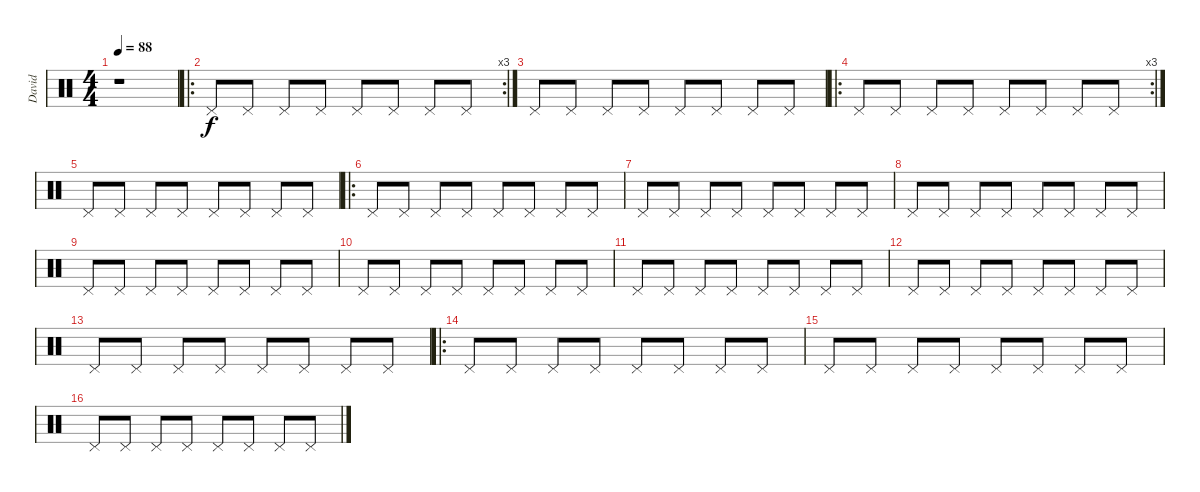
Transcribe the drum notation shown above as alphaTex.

\track ("David" "David") {instrument percussion}
\staff {score}
\articulation defaults
\ts (4 4)
\tempo 88
\clef neutral
\ks c
r.1{dy f} |
\ro
\rc 3 "Pedal Hi-Hat (hit)".8 "Pedal Hi-Hat (hit)".8 "Pedal Hi-Hat (hit)".8 "Pedal Hi-Hat (hit)".8 "Pedal Hi-Hat (hit)".8 "Pedal Hi-Hat (hit)".8 "Pedal Hi-Hat (hit)".8 "Pedal Hi-Hat (hit)".8
|
"Pedal Hi-Hat (hit)".8 "Pedal Hi-Hat (hit)".8 "Pedal Hi-Hat (hit)".8 "Pedal Hi-Hat (hit)".8 "Pedal Hi-Hat (hit)".8 "Pedal Hi-Hat (hit)".8 "Pedal Hi-Hat (hit)".8 "Pedal Hi-Hat (hit)".8 |
\ro
\rc 3 "Pedal Hi-Hat (hit)".8 "Pedal Hi-Hat (hit)".8 "Pedal Hi-Hat (hit)".8 "Pedal Hi-Hat (hit)".8 "Pedal Hi-Hat (hit)".8 "Pedal Hi-Hat (hit)".8 "Pedal Hi-Hat (hit)".8 "Pedal Hi-Hat (hit)".8
|
"Pedal Hi-Hat (hit)".8 "Pedal Hi-Hat (hit)".8 "Pedal Hi-Hat (hit)".8 "Pedal Hi-Hat (hit)".8 "Pedal Hi-Hat (hit)".8 "Pedal Hi-Hat (hit)".8 "Pedal Hi-Hat (hit)".8 "Pedal Hi-Hat (hit)".8 |
\ro "Pedal Hi-Hat (hit)".8 "Pedal Hi-Hat (hit)".8 "Pedal Hi-Hat (hit)".8 "Pedal Hi-Hat (hit)".8 "Pedal Hi-Hat (hit)".8 "Pedal Hi-Hat (hit)".8 "Pedal Hi-Hat (hit)".8 "Pedal Hi-Hat (hit)".8
|
"Pedal Hi-Hat (hit)".8 "Pedal Hi-Hat (hit)".8 "Pedal Hi-Hat (hit)".8 "Pedal Hi-Hat (hit)".8 "Pedal Hi-Hat (hit)".8 "Pedal Hi-Hat (hit)".8 "Pedal Hi-Hat (hit)".8 "Pedal Hi-Hat (hit)".8 |
"Pedal Hi-Hat (hit)".8 "Pedal Hi-Hat (hit)".8 "Pedal Hi-Hat (hit)".8 "Pedal Hi-Hat (hit)".8 "Pedal Hi-Hat (hit)".8 "Pedal Hi-Hat (hit)".8 "Pedal Hi-Hat (hit)".8 "Pedal Hi-Hat (hit)".8 |
"Pedal Hi-Hat (hit)".8 "Pedal Hi-Hat (hit)".8 "Pedal Hi-Hat (hit)".8 "Pedal Hi-Hat (hit)".8 "Pedal Hi-Hat (hit)".8 "Pedal Hi-Hat (hit)".8 "Pedal Hi-Hat (hit)".8 "Pedal Hi-Hat (hit)".8 |
"Pedal Hi-Hat (hit)".8 "Pedal Hi-Hat (hit)".8 "Pedal Hi-Hat (hit)".8 "Pedal Hi-Hat (hit)".8 "Pedal Hi-Hat (hit)".8 "Pedal Hi-Hat (hit)".8 "Pedal Hi-Hat (hit)".8 "Pedal Hi-Hat (hit)".8 |
"Pedal Hi-Hat (hit)".8 "Pedal Hi-Hat (hit)".8 "Pedal Hi-Hat (hit)".8 "Pedal Hi-Hat (hit)".8 "Pedal Hi-Hat (hit)".8 "Pedal Hi-Hat (hit)".8 "Pedal Hi-Hat (hit)".8 "Pedal Hi-Hat (hit)".8 |
"Pedal Hi-Hat (hit)".8 "Pedal Hi-Hat (hit)".8 "Pedal Hi-Hat (hit)".8 "Pedal Hi-Hat (hit)".8 "Pedal Hi-Hat (hit)".8 "Pedal Hi-Hat (hit)".8 "Pedal Hi-Hat (hit)".8 "Pedal Hi-Hat (hit)".8 |
"Pedal Hi-Hat (hit)".8 "Pedal Hi-Hat (hit)".8 "Pedal Hi-Hat (hit)".8 "Pedal Hi-Hat (hit)".8 "Pedal Hi-Hat (hit)".8 "Pedal Hi-Hat (hit)".8 "Pedal Hi-Hat (hit)".8 "Pedal Hi-Hat (hit)".8 |
\ro "Pedal Hi-Hat (hit)".8 "Pedal Hi-Hat (hit)".8 "Pedal Hi-Hat (hit)".8 "Pedal Hi-Hat (hit)".8 "Pedal Hi-Hat (hit)".8 "Pedal Hi-Hat (hit)".8 "Pedal Hi-Hat (hit)".8 "Pedal Hi-Hat (hit)".8
|
"Pedal Hi-Hat (hit)".8 "Pedal Hi-Hat (hit)".8 "Pedal Hi-Hat (hit)".8 "Pedal Hi-Hat (hit)".8 "Pedal Hi-Hat (hit)".8 "Pedal Hi-Hat (hit)".8 "Pedal Hi-Hat (hit)".8 "Pedal Hi-Hat (hit)".8 |
"Pedal Hi-Hat (hit)".8 "Pedal Hi-Hat (hit)".8 "Pedal Hi-Hat (hit)".8 "Pedal Hi-Hat (hit)".8 "Pedal Hi-Hat (hit)".8 "Pedal Hi-Hat (hit)".8 "Pedal Hi-Hat (hit)".8 "Pedal Hi-Hat (hit)".8
